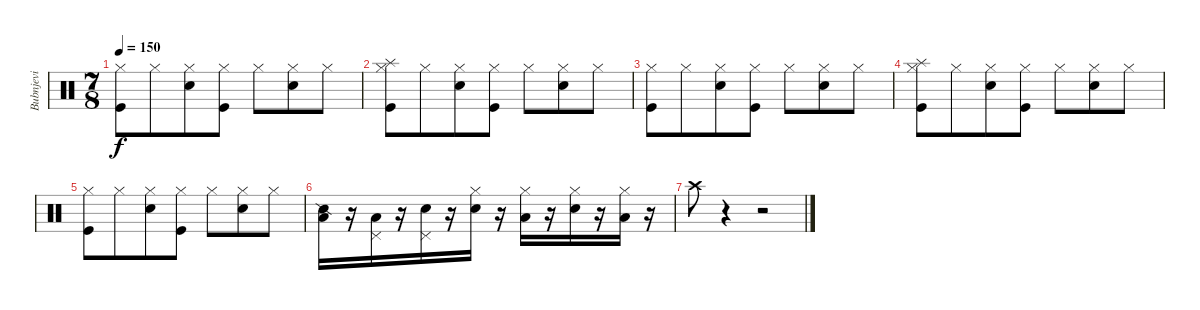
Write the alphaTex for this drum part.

\track ("Bubnjevi" "Bubnjevi") {instrument percussion}
\staff {score}
\articulation defaults
\ts (7 8)
\tempo 150
\clef neutral
\ks c
("Kick (hit)" "Hi-Hat (closed)").8{dy f} "Hi-Hat (closed)".8 ("Snare (hit) 2" "Hi-Hat (closed)").8 ("Kick (hit)" "Hi-Hat (closed)").8 "Hi-Hat (closed)".8 ("Snare (hit) 2" "Hi-Hat (closed)").8 "Hi-Hat (closed)".8 |
("Splash (hit)" "Kick (hit)" "Hi-Hat (closed)").8 "Hi-Hat (closed)".8 ("Snare (hit) 2" "Hi-Hat (closed)").8 ("Kick (hit)" "Hi-Hat (closed)").8 "Hi-Hat (closed)".8 ("Snare (hit) 2" "Hi-Hat (closed)").8 "Hi-Hat (closed)".8 |
("Kick (hit)" "Hi-Hat (closed)").8 "Hi-Hat (closed)".8 ("Snare (hit) 2" "Hi-Hat (closed)").8 ("Kick (hit)" "Hi-Hat (closed)").8 "Hi-Hat (closed)".8 ("Snare (hit) 2" "Hi-Hat (closed)").8 "Hi-Hat (closed)".8 |
("Splash (hit)" "Kick (hit)" "Hi-Hat (closed)").8 "Hi-Hat (closed)".8 ("Snare (hit) 2" "Hi-Hat (closed)").8 ("Kick (hit)" "Hi-Hat (closed)").8 "Hi-Hat (closed)".8 ("Snare (hit) 2" "Hi-Hat (closed)").8 "Hi-Hat (closed)".8 |
("Kick (hit)" "Hi-Hat (closed)").8 "Hi-Hat (closed)".8 ("Snare (hit) 2" "Hi-Hat (closed)").8 ("Kick (hit)" "Hi-Hat (closed)").8 "Hi-Hat (closed)".8 ("Snare (hit) 2" "Hi-Hat (closed)").8 "Hi-Hat (closed)".8 |
("Low Tom (hit)" "Snare (side stick) 2").16 r.16 ("Pedal Hi-Hat (hit)" "Low Tom (hit)").16 r.16 ("Pedal Hi-Hat (hit)" "Snare (hit) 2").16 r.16 ("Hi-Hat (closed)" "Snare (hit) 2").16 r.16 ("Hi-Hat (closed)" "Low Tom (hit)").16 r.16 ("Hi-Hat (closed)" "Snare (hit) 2").16 r.16 ("Hi-Hat (closed)" "Low Tom (hit)").16 r.16 |
"Crash high (hit)".8 r.4 r.2
